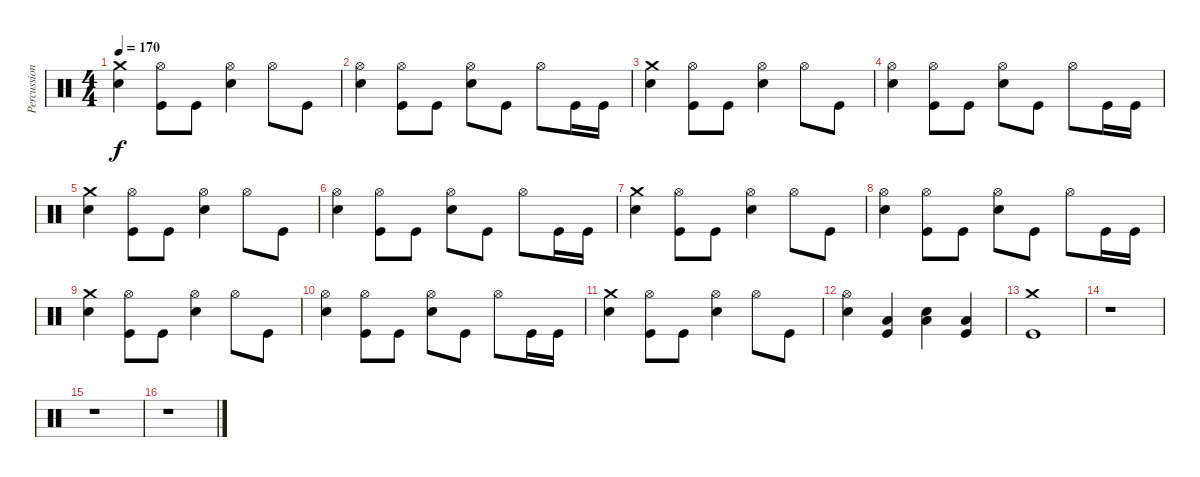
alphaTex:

\track ("Percussion" "Percussion") {instrument percussion}
\staff {score}
\articulation defaults
\ts (4 4)
\tempo 170
\clef neutral
\ks c
("Crash medium (hit)" "Electric Snare (hit)").4{dy f} ("Hi-Hat (open)" "Kick (hit)").8 "Kick (hit)".8 ("Hi-Hat (open)" "Electric Snare (hit)").4 "Hi-Hat (open)".8 "Kick (hit)".8 |
("Hi-Hat (open)" "Electric Snare (hit)").4 ("Hi-Hat (open)" "Kick (hit)").8 "Kick (hit)".8 ("Hi-Hat (open)" "Electric Snare (hit)").8 "Kick (hit)".8 "Hi-Hat (open)".8 "Kick (hit)".16 "Kick (hit)".16 |
("Crash medium (hit)" "Electric Snare (hit)").4 ("Hi-Hat (open)" "Kick (hit)").8 "Kick (hit)".8 ("Hi-Hat (open)" "Electric Snare (hit)").4 "Hi-Hat (open)".8 "Kick (hit)".8 |
("Hi-Hat (open)" "Electric Snare (hit)").4 ("Hi-Hat (open)" "Kick (hit)").8 "Kick (hit)".8 ("Hi-Hat (open)" "Electric Snare (hit)").8 "Kick (hit)".8 "Hi-Hat (open)".8 "Kick (hit)".16 "Kick (hit)".16 |
("Crash medium (hit)" "Electric Snare (hit)").4 ("Hi-Hat (open)" "Kick (hit)").8 "Kick (hit)".8 ("Hi-Hat (open)" "Electric Snare (hit)").4 "Hi-Hat (open)".8 "Kick (hit)".8 |
("Hi-Hat (open)" "Electric Snare (hit)").4 ("Hi-Hat (open)" "Kick (hit)").8 "Kick (hit)".8 ("Hi-Hat (open)" "Electric Snare (hit)").8 "Kick (hit)".8 "Hi-Hat (open)".8 "Kick (hit)".16 "Kick (hit)".16 |
("Crash medium (hit)" "Electric Snare (hit)").4 ("Hi-Hat (open)" "Kick (hit)").8 "Kick (hit)".8 ("Hi-Hat (open)" "Electric Snare (hit)").4 "Hi-Hat (open)".8 "Kick (hit)".8 |
("Hi-Hat (open)" "Electric Snare (hit)").4 ("Hi-Hat (open)" "Kick (hit)").8 "Kick (hit)".8 ("Hi-Hat (open)" "Electric Snare (hit)").8 "Kick (hit)".8 "Hi-Hat (open)".8 "Kick (hit)".16 "Kick (hit)".16 |
("Crash medium (hit)" "Electric Snare (hit)").4 ("Hi-Hat (open)" "Kick (hit)").8 "Kick (hit)".8 ("Hi-Hat (open)" "Electric Snare (hit)").4 "Hi-Hat (open)".8 "Kick (hit)".8 |
("Hi-Hat (open)" "Electric Snare (hit)").4 ("Hi-Hat (open)" "Kick (hit)").8 "Kick (hit)".8 ("Hi-Hat (open)" "Electric Snare (hit)").8 "Kick (hit)".8 "Hi-Hat (open)".8 "Kick (hit)".16 "Kick (hit)".16 |
("Crash medium (hit)" "Electric Snare (hit)").4 ("Hi-Hat (open)" "Kick (hit)").8 "Kick (hit)".8 ("Hi-Hat (open)" "Electric Snare (hit)").4 "Hi-Hat (open)".8 "Kick (hit)".8 |
("Hi-Hat (open)" "Electric Snare (hit)").4 ("Low Tom (hit)" "Kick (hit)").4 ("Electric Snare (hit)" "Low Tom (hit)").4 ("Low Tom (hit)" "Kick (hit)").4 |
("Crash medium (hit)" "Kick (hit)").1 |
r.1 |
r.1 |
r.1
